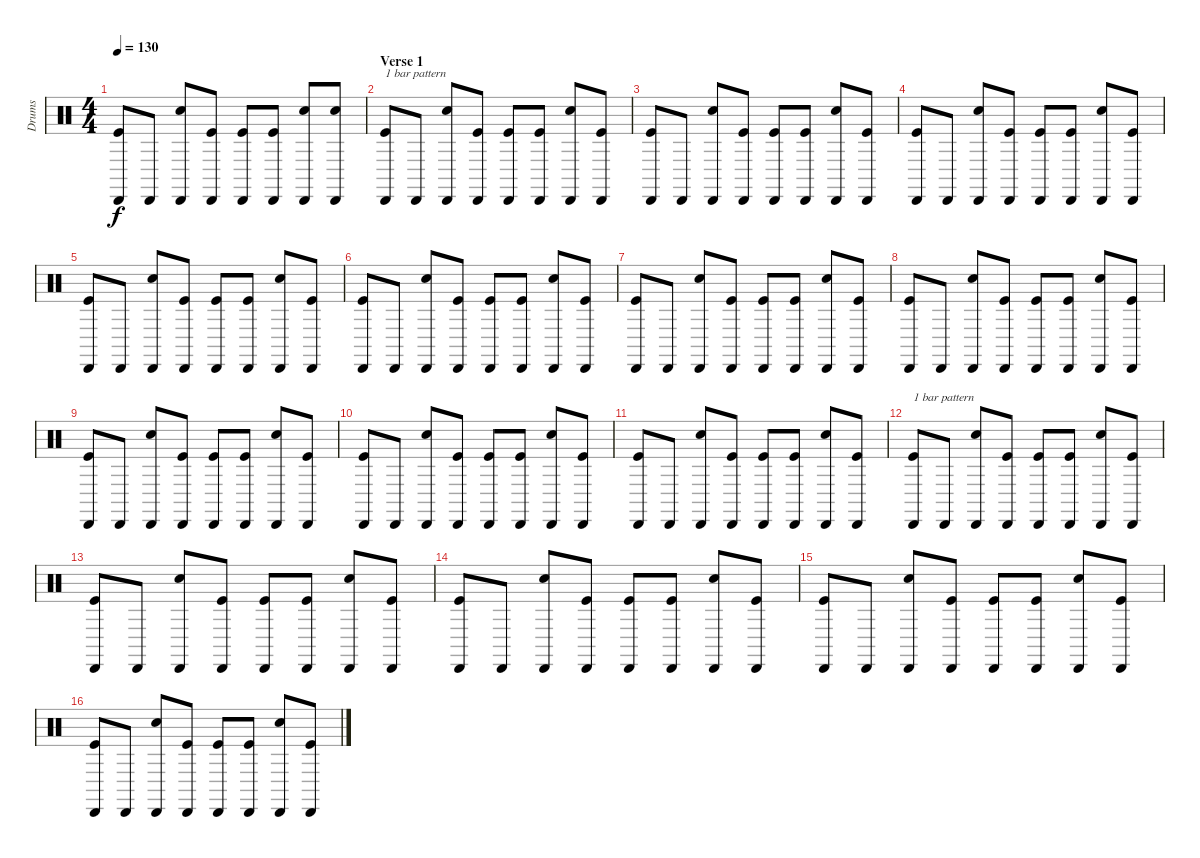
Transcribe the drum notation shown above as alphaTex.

\track ("Drums" "Drums") {instrument percussion}
\staff {score}
\articulation defaults
\ts (4 4)
\tempo 130
\clef neutral
\ks c
("Cabasa (hit)" "Kick (hit)").8{dy f} "Cabasa (hit)".8 ("Cabasa (hit)" "Electric Snare (hit)").8 ("Cabasa (hit)" "Kick (hit)").8 ("Cabasa (hit)" "Kick (hit)").8 ("Cabasa (hit)" "Kick (hit)").8 ("Cabasa (hit)" "Electric Snare (hit)").8 ("Cabasa (hit)" "Electric Snare (hit)").8 |
\section ("" "Verse 1")
("Cabasa (hit)" "Kick (hit)").8{txt "1 bar pattern"} "Cabasa (hit)".8 ("Cabasa (hit)" "Electric Snare (hit)").8 ("Cabasa (hit)" "Kick (hit)").8 ("Cabasa (hit)" "Kick (hit)").8 ("Cabasa (hit)" "Kick (hit)").8 ("Cabasa (hit)" "Electric Snare (hit)").8 ("Cabasa (hit)" "Kick (hit)").8 |
("Cabasa (hit)" "Kick (hit)").8 "Cabasa (hit)".8 ("Cabasa (hit)" "Electric Snare (hit)").8 ("Cabasa (hit)" "Kick (hit)").8 ("Cabasa (hit)" "Kick (hit)").8 ("Cabasa (hit)" "Kick (hit)").8 ("Cabasa (hit)" "Electric Snare (hit)").8 ("Cabasa (hit)" "Kick (hit)").8 |
("Cabasa (hit)" "Kick (hit)").8 "Cabasa (hit)".8 ("Cabasa (hit)" "Electric Snare (hit)").8 ("Cabasa (hit)" "Kick (hit)").8 ("Cabasa (hit)" "Kick (hit)").8 ("Cabasa (hit)" "Kick (hit)").8 ("Cabasa (hit)" "Electric Snare (hit)").8 ("Cabasa (hit)" "Kick (hit)").8 |
("Cabasa (hit)" "Kick (hit)").8 "Cabasa (hit)".8 ("Cabasa (hit)" "Electric Snare (hit)").8 ("Cabasa (hit)" "Kick (hit)").8 ("Cabasa (hit)" "Kick (hit)").8 ("Cabasa (hit)" "Kick (hit)").8 ("Cabasa (hit)" "Electric Snare (hit)").8 ("Cabasa (hit)" "Kick (hit)").8 |
("Cabasa (hit)" "Kick (hit)").8 "Cabasa (hit)".8 ("Cabasa (hit)" "Electric Snare (hit)").8 ("Cabasa (hit)" "Kick (hit)").8 ("Cabasa (hit)" "Kick (hit)").8 ("Cabasa (hit)" "Kick (hit)").8 ("Cabasa (hit)" "Electric Snare (hit)").8 ("Cabasa (hit)" "Kick (hit)").8 |
("Cabasa (hit)" "Kick (hit)").8 "Cabasa (hit)".8 ("Cabasa (hit)" "Electric Snare (hit)").8 ("Cabasa (hit)" "Kick (hit)").8 ("Cabasa (hit)" "Kick (hit)").8 ("Cabasa (hit)" "Kick (hit)").8 ("Cabasa (hit)" "Electric Snare (hit)").8 ("Cabasa (hit)" "Kick (hit)").8 |
("Cabasa (hit)" "Kick (hit)").8 "Cabasa (hit)".8 ("Cabasa (hit)" "Electric Snare (hit)").8 ("Cabasa (hit)" "Kick (hit)").8 ("Cabasa (hit)" "Kick (hit)").8 ("Cabasa (hit)" "Kick (hit)").8 ("Cabasa (hit)" "Electric Snare (hit)").8 ("Cabasa (hit)" "Kick (hit)").8 |
("Cabasa (hit)" "Kick (hit)").8 "Cabasa (hit)".8 ("Cabasa (hit)" "Electric Snare (hit)").8 ("Cabasa (hit)" "Kick (hit)").8 ("Cabasa (hit)" "Kick (hit)").8 ("Cabasa (hit)" "Kick (hit)").8 ("Cabasa (hit)" "Electric Snare (hit)").8 ("Cabasa (hit)" "Kick (hit)").8 |
("Cabasa (hit)" "Kick (hit)").8 "Cabasa (hit)".8 ("Cabasa (hit)" "Electric Snare (hit)").8 ("Cabasa (hit)" "Kick (hit)").8 ("Cabasa (hit)" "Kick (hit)").8 ("Cabasa (hit)" "Kick (hit)").8 ("Cabasa (hit)" "Electric Snare (hit)").8 ("Cabasa (hit)" "Kick (hit)").8 |
("Cabasa (hit)" "Kick (hit)").8 "Cabasa (hit)".8 ("Cabasa (hit)" "Electric Snare (hit)").8 ("Cabasa (hit)" "Kick (hit)").8 ("Cabasa (hit)" "Kick (hit)").8 ("Cabasa (hit)" "Kick (hit)").8 ("Cabasa (hit)" "Electric Snare (hit)").8 ("Cabasa (hit)" "Kick (hit)").8 |
("Cabasa (hit)" "Kick (hit)").8{txt "1 bar pattern"} "Cabasa (hit)".8 ("Cabasa (hit)" "Electric Snare (hit)").8 ("Cabasa (hit)" "Kick (hit)").8 ("Cabasa (hit)" "Kick (hit)").8 ("Cabasa (hit)" "Kick (hit)").8 ("Cabasa (hit)" "Electric Snare (hit)").8 ("Cabasa (hit)" "Kick (hit)").8 |
("Cabasa (hit)" "Kick (hit)").8 "Cabasa (hit)".8 ("Cabasa (hit)" "Electric Snare (hit)").8 ("Cabasa (hit)" "Kick (hit)").8 ("Cabasa (hit)" "Kick (hit)").8 ("Cabasa (hit)" "Kick (hit)").8 ("Cabasa (hit)" "Electric Snare (hit)").8 ("Cabasa (hit)" "Kick (hit)").8 |
("Cabasa (hit)" "Kick (hit)").8 "Cabasa (hit)".8 ("Cabasa (hit)" "Electric Snare (hit)").8 ("Cabasa (hit)" "Kick (hit)").8 ("Cabasa (hit)" "Kick (hit)").8 ("Cabasa (hit)" "Kick (hit)").8 ("Cabasa (hit)" "Electric Snare (hit)").8 ("Cabasa (hit)" "Kick (hit)").8 |
("Cabasa (hit)" "Kick (hit)").8 "Cabasa (hit)".8 ("Cabasa (hit)" "Electric Snare (hit)").8 ("Cabasa (hit)" "Kick (hit)").8 ("Cabasa (hit)" "Kick (hit)").8 ("Cabasa (hit)" "Kick (hit)").8 ("Cabasa (hit)" "Electric Snare (hit)").8 ("Cabasa (hit)" "Kick (hit)").8 |
("Cabasa (hit)" "Kick (hit)").8 "Cabasa (hit)".8 ("Cabasa (hit)" "Electric Snare (hit)").8 ("Cabasa (hit)" "Kick (hit)").8 ("Cabasa (hit)" "Kick (hit)").8 ("Cabasa (hit)" "Kick (hit)").8 ("Cabasa (hit)" "Electric Snare (hit)").8 ("Cabasa (hit)" "Kick (hit)").8
